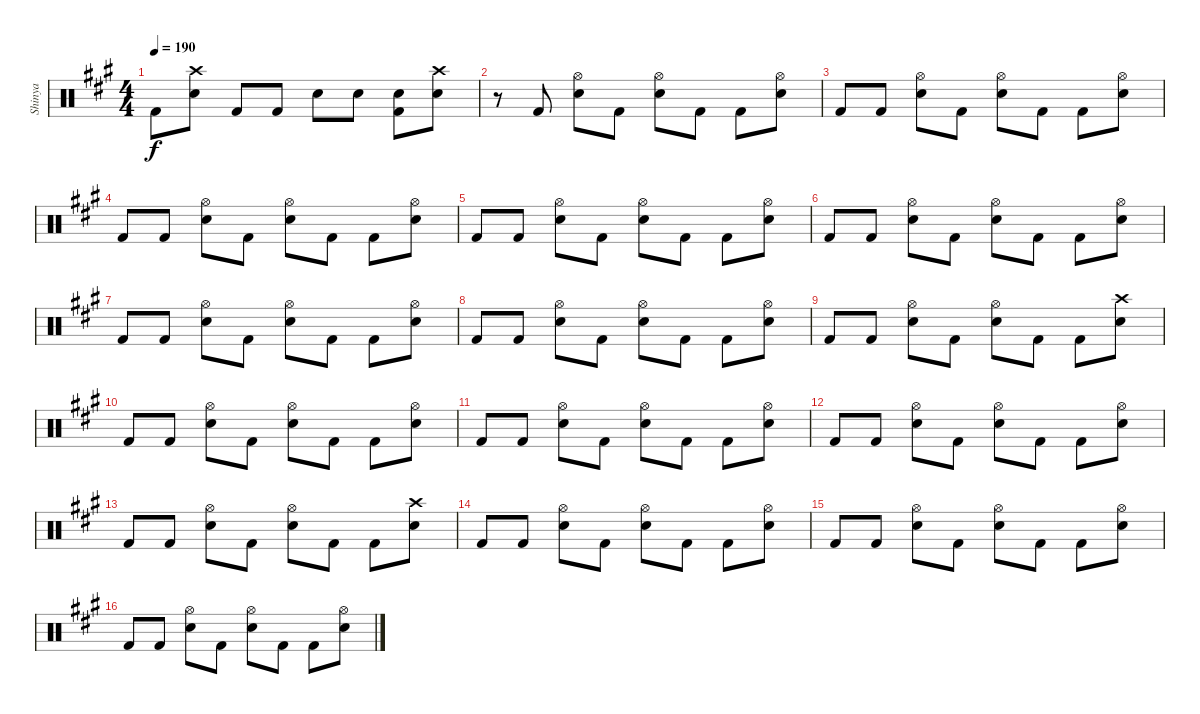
\track ("Shinya" "Shinya") {instrument percussion}
\staff {score}
\articulation defaults
\ts (4 4)
\tempo 190
\clef neutral
\ks a "Kick (hit) 2".8{dy f}
("Crash high (hit)" "Snare (hit) 2").8 "Kick (hit) 2".8 "Kick (hit) 2".8 "Snare (hit) 2".8 "Snare (hit) 2".8 ("Snare (hit) 2" "Kick (hit) 2").8 ("Crash high (hit)" "Snare (hit) 2").8 |
r.8 "Kick (hit) 2".8 ("Hi-Hat (open)" "Snare (hit) 2").8 "Kick (hit) 2".8 ("Hi-Hat (open)" "Snare (hit) 2").8 "Kick (hit) 2".8 "Kick (hit) 2".8 ("Hi-Hat (open)" "Snare (hit) 2").8 |
"Kick (hit) 2".8 "Kick (hit) 2".8 ("Snare (hit) 2" "Hi-Hat (open)").8 "Kick (hit) 2".8 ("Snare (hit) 2" "Hi-Hat (open)").8 "Kick (hit) 2".8 "Kick (hit) 2".8 ("Snare (hit) 2" "Hi-Hat (open)").8 |
"Kick (hit) 2".8 "Kick (hit) 2".8 ("Snare (hit) 2" "Hi-Hat (open)").8 "Kick (hit) 2".8 ("Snare (hit) 2" "Hi-Hat (open)").8 "Kick (hit) 2".8 "Kick (hit) 2".8 ("Snare (hit) 2" "Hi-Hat (open)").8 |
"Kick (hit) 2".8 "Kick (hit) 2".8 ("Snare (hit) 2" "Hi-Hat (open)").8 "Kick (hit) 2".8 ("Snare (hit) 2" "Hi-Hat (open)").8 "Kick (hit) 2".8 "Kick (hit) 2".8 ("Snare (hit) 2" "Hi-Hat (open)").8 |
"Kick (hit) 2".8 "Kick (hit) 2".8 ("Snare (hit) 2" "Hi-Hat (open)").8 "Kick (hit) 2".8 ("Snare (hit) 2" "Hi-Hat (open)").8 "Kick (hit) 2".8 "Kick (hit) 2".8 ("Snare (hit) 2" "Hi-Hat (open)").8 |
"Kick (hit) 2".8 "Kick (hit) 2".8 ("Snare (hit) 2" "Hi-Hat (open)").8 "Kick (hit) 2".8 ("Snare (hit) 2" "Hi-Hat (open)").8 "Kick (hit) 2".8 "Kick (hit) 2".8 ("Snare (hit) 2" "Hi-Hat (open)").8 |
"Kick (hit) 2".8 "Kick (hit) 2".8 ("Snare (hit) 2" "Hi-Hat (open)").8 "Kick (hit) 2".8 ("Snare (hit) 2" "Hi-Hat (open)").8 "Kick (hit) 2".8 "Kick (hit) 2".8 ("Snare (hit) 2" "Hi-Hat (open)").8 |
"Kick (hit) 2".8 "Kick (hit) 2".8 ("Hi-Hat (open)" "Snare (hit) 2").8 "Kick (hit) 2".8 ("Hi-Hat (open)" "Snare (hit) 2").8 "Kick (hit) 2".8 "Kick (hit) 2".8 ("Crash high (hit)" "Snare (hit) 2").8 |
"Kick (hit) 2".8 "Kick (hit) 2".8 ("Hi-Hat (open)" "Snare (hit) 2").8 "Kick (hit) 2".8 ("Hi-Hat (open)" "Snare (hit) 2").8 "Kick (hit) 2".8 "Kick (hit) 2".8 ("Hi-Hat (open)" "Snare (hit) 2").8 |
"Kick (hit) 2".8 "Kick (hit) 2".8 ("Hi-Hat (open)" "Snare (hit) 2").8 "Kick (hit) 2".8 ("Hi-Hat (open)" "Snare (hit) 2").8 "Kick (hit) 2".8 "Kick (hit) 2".8 ("Hi-Hat (open)" "Snare (hit) 2").8 |
"Kick (hit) 2".8 "Kick (hit) 2".8 ("Hi-Hat (open)" "Snare (hit) 2").8 "Kick (hit) 2".8 ("Hi-Hat (open)" "Snare (hit) 2").8 "Kick (hit) 2".8 "Kick (hit) 2".8 ("Hi-Hat (open)" "Snare (hit) 2").8 |
"Kick (hit) 2".8 "Kick (hit) 2".8 ("Hi-Hat (open)" "Snare (hit) 2").8 "Kick (hit) 2".8 ("Hi-Hat (open)" "Snare (hit) 2").8 "Kick (hit) 2".8 "Kick (hit) 2".8 ("Crash high (hit)" "Snare (hit) 2").8 |
"Kick (hit) 2".8 "Kick (hit) 2".8 ("Hi-Hat (open)" "Snare (hit) 2").8 "Kick (hit) 2".8 ("Hi-Hat (open)" "Snare (hit) 2").8 "Kick (hit) 2".8 "Kick (hit) 2".8 ("Hi-Hat (open)" "Snare (hit) 2").8 |
"Kick (hit) 2".8 "Kick (hit) 2".8 ("Hi-Hat (open)" "Snare (hit) 2").8 "Kick (hit) 2".8 ("Hi-Hat (open)" "Snare (hit) 2").8 "Kick (hit) 2".8 "Kick (hit) 2".8 ("Hi-Hat (open)" "Snare (hit) 2").8 |
"Kick (hit) 2".8 "Kick (hit) 2".8 ("Hi-Hat (open)" "Snare (hit) 2").8 "Kick (hit) 2".8 ("Hi-Hat (open)" "Snare (hit) 2").8 "Kick (hit) 2".8 "Kick (hit) 2".8 ("Hi-Hat (open)" "Snare (hit) 2").8
